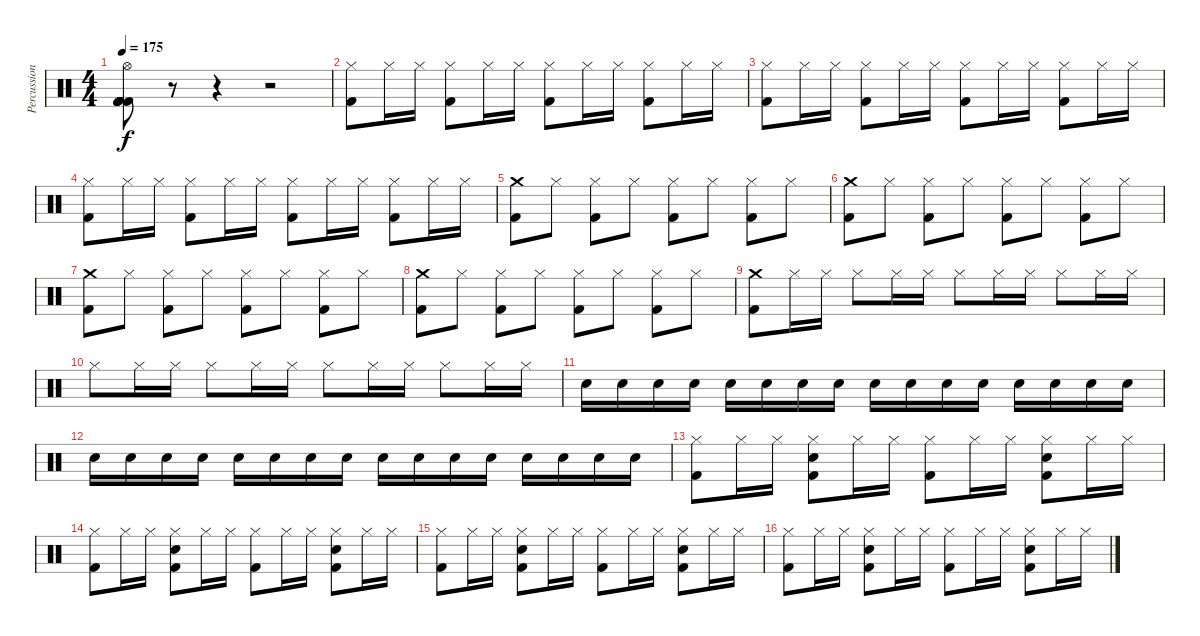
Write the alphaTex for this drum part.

\track ("Percussions" "Percussion") {instrument percussion}
\staff {score}
\articulation defaults
\ts (4 4)
\tempo 175
\clef neutral
\ks c
("Hi-Hat (open)" "Kick (hit) 2" "Kick (hit) 2" "Kick (hit) 2" "Kick (hit) 2" "Kick (hit) 2").8{dy f} r.8 r.4 r.2 |
("Hi-Hat (closed)" "Kick (hit) 2").8 "Hi-Hat (closed)".16 "Hi-Hat (closed)".16 ("Hi-Hat (closed)" "Kick (hit) 2").8 "Hi-Hat (closed)".16 "Hi-Hat (closed)".16 ("Hi-Hat (closed)" "Kick (hit) 2").8 "Hi-Hat (closed)".16 "Hi-Hat (closed)".16 ("Hi-Hat (closed)" "Kick (hit) 2").8 "Hi-Hat (closed)".16 "Hi-Hat (closed)".16 |
("Hi-Hat (closed)" "Kick (hit) 2").8 "Hi-Hat (closed)".16 "Hi-Hat (closed)".16 ("Hi-Hat (closed)" "Kick (hit) 2").8 "Hi-Hat (closed)".16 "Hi-Hat (closed)".16 ("Hi-Hat (closed)" "Kick (hit) 2").8 "Hi-Hat (closed)".16 "Hi-Hat (closed)".16 ("Hi-Hat (closed)" "Kick (hit) 2").8 "Hi-Hat (closed)".16 "Hi-Hat (closed)".16 |
("Hi-Hat (closed)" "Kick (hit) 2").8 "Hi-Hat (closed)".16 "Hi-Hat (closed)".16 ("Hi-Hat (closed)" "Kick (hit) 2").8 "Hi-Hat (closed)".16 "Hi-Hat (closed)".16 ("Hi-Hat (closed)" "Kick (hit) 2").8 "Hi-Hat (closed)".16 "Hi-Hat (closed)".16 ("Hi-Hat (closed)" "Kick (hit) 2").8 "Hi-Hat (closed)".16 "Hi-Hat (closed)".16 |
("Crash medium (hit)" "Kick (hit) 2").8 "Hi-Hat (closed)".8 ("Hi-Hat (closed)" "Kick (hit) 2").8 "Hi-Hat (closed)".8 ("Hi-Hat (closed)" "Kick (hit) 2").8 "Hi-Hat (closed)".8 ("Hi-Hat (closed)" "Kick (hit) 2").8 "Hi-Hat (closed)".8 |
("Crash medium (hit)" "Kick (hit) 2").8 "Hi-Hat (closed)".8 ("Hi-Hat (closed)" "Kick (hit) 2").8 "Hi-Hat (closed)".8 ("Hi-Hat (closed)" "Kick (hit) 2").8 "Hi-Hat (closed)".8 ("Hi-Hat (closed)" "Kick (hit) 2").8 "Hi-Hat (closed)".8 |
("Crash medium (hit)" "Kick (hit) 2").8 "Hi-Hat (closed)".8 ("Hi-Hat (closed)" "Kick (hit) 2").8 "Hi-Hat (closed)".8 ("Hi-Hat (closed)" "Kick (hit) 2").8 "Hi-Hat (closed)".8 ("Hi-Hat (closed)" "Kick (hit) 2").8 "Hi-Hat (closed)".8 |
("Crash medium (hit)" "Kick (hit) 2").8 "Hi-Hat (closed)".8 ("Hi-Hat (closed)" "Kick (hit) 2").8 "Hi-Hat (closed)".8 ("Hi-Hat (closed)" "Kick (hit) 2").8 "Hi-Hat (closed)".8 ("Hi-Hat (closed)" "Kick (hit) 2").8 "Hi-Hat (closed)".8 |
("Crash medium (hit)" "Kick (hit) 2").8 "Hi-Hat (closed)".16 "Hi-Hat (closed)".16 "Hi-Hat (closed)".8 "Hi-Hat (closed)".16 "Hi-Hat (closed)".16 "Hi-Hat (closed)".8 "Hi-Hat (closed)".16 "Hi-Hat (closed)".16 "Hi-Hat (closed)".8 "Hi-Hat (closed)".16 "Hi-Hat (closed)".16 |
"Hi-Hat (closed)".8 "Hi-Hat (closed)".16 "Hi-Hat (closed)".16 "Hi-Hat (closed)".8 "Hi-Hat (closed)".16 "Hi-Hat (closed)".16 "Hi-Hat (closed)".8 "Hi-Hat (closed)".16 "Hi-Hat (closed)".16 "Hi-Hat (closed)".8 "Hi-Hat (closed)".16 "Hi-Hat (closed)".16 |
"Snare (hit) 2".16 "Snare (hit) 2".16 "Snare (hit) 2".16 "Snare (hit) 2".16 "Snare (hit) 2".16 "Snare (hit) 2".16 "Snare (hit) 2".16 "Snare (hit) 2".16 "Snare (hit) 2".16 "Snare (hit) 2".16 "Snare (hit) 2".16 "Snare (hit) 2".16 "Snare (hit) 2".16 "Snare (hit) 2".16 "Snare (hit) 2".16 "Snare (hit) 2".16 |
"Snare (hit) 2".16 "Snare (hit) 2".16 "Snare (hit) 2".16 "Snare (hit) 2".16 "Snare (hit) 2".16 "Snare (hit) 2".16 "Snare (hit) 2".16 "Snare (hit) 2".16 "Snare (hit) 2".16 "Snare (hit) 2".16 "Snare (hit) 2".16 "Snare (hit) 2".16 "Snare (hit) 2".16 "Snare (hit) 2".16 "Snare (hit) 2".16 "Snare (hit) 2".16 |
("Hi-Hat (closed)" "Kick (hit) 2").8 "Hi-Hat (closed)".16 "Hi-Hat (closed)".16 ("Hi-Hat (closed)" "Snare (hit) 2" "Kick (hit) 2").8 "Hi-Hat (closed)".16 "Hi-Hat (closed)".16 ("Hi-Hat (closed)" "Kick (hit) 2").8 "Hi-Hat (closed)".16 "Hi-Hat (closed)".16 ("Hi-Hat (closed)" "Snare (hit) 2" "Kick (hit) 2").8 "Hi-Hat (closed)".16 "Hi-Hat (closed)".16 |
("Hi-Hat (closed)" "Kick (hit) 2").8 "Hi-Hat (closed)".16 "Hi-Hat (closed)".16 ("Hi-Hat (closed)" "Snare (hit) 2" "Kick (hit) 2").8 "Hi-Hat (closed)".16 "Hi-Hat (closed)".16 ("Hi-Hat (closed)" "Kick (hit) 2").8 "Hi-Hat (closed)".16 "Hi-Hat (closed)".16 ("Hi-Hat (closed)" "Snare (hit) 2" "Kick (hit) 2").8 "Hi-Hat (closed)".16 "Hi-Hat (closed)".16 |
("Hi-Hat (closed)" "Kick (hit) 2").8 "Hi-Hat (closed)".16 "Hi-Hat (closed)".16 ("Hi-Hat (closed)" "Snare (hit) 2" "Kick (hit) 2").8 "Hi-Hat (closed)".16 "Hi-Hat (closed)".16 ("Hi-Hat (closed)" "Kick (hit) 2").8 "Hi-Hat (closed)".16 "Hi-Hat (closed)".16 ("Hi-Hat (closed)" "Snare (hit) 2" "Kick (hit) 2").8 "Hi-Hat (closed)".16 "Hi-Hat (closed)".16 |
("Hi-Hat (closed)" "Kick (hit) 2").8 "Hi-Hat (closed)".16 "Hi-Hat (closed)".16 ("Hi-Hat (closed)" "Snare (hit) 2" "Kick (hit) 2").8 "Hi-Hat (closed)".16 "Hi-Hat (closed)".16 ("Hi-Hat (closed)" "Kick (hit) 2").8 "Hi-Hat (closed)".16 "Hi-Hat (closed)".16 ("Hi-Hat (closed)" "Snare (hit) 2" "Kick (hit) 2").8 "Hi-Hat (closed)".16 "Hi-Hat (closed)".16
